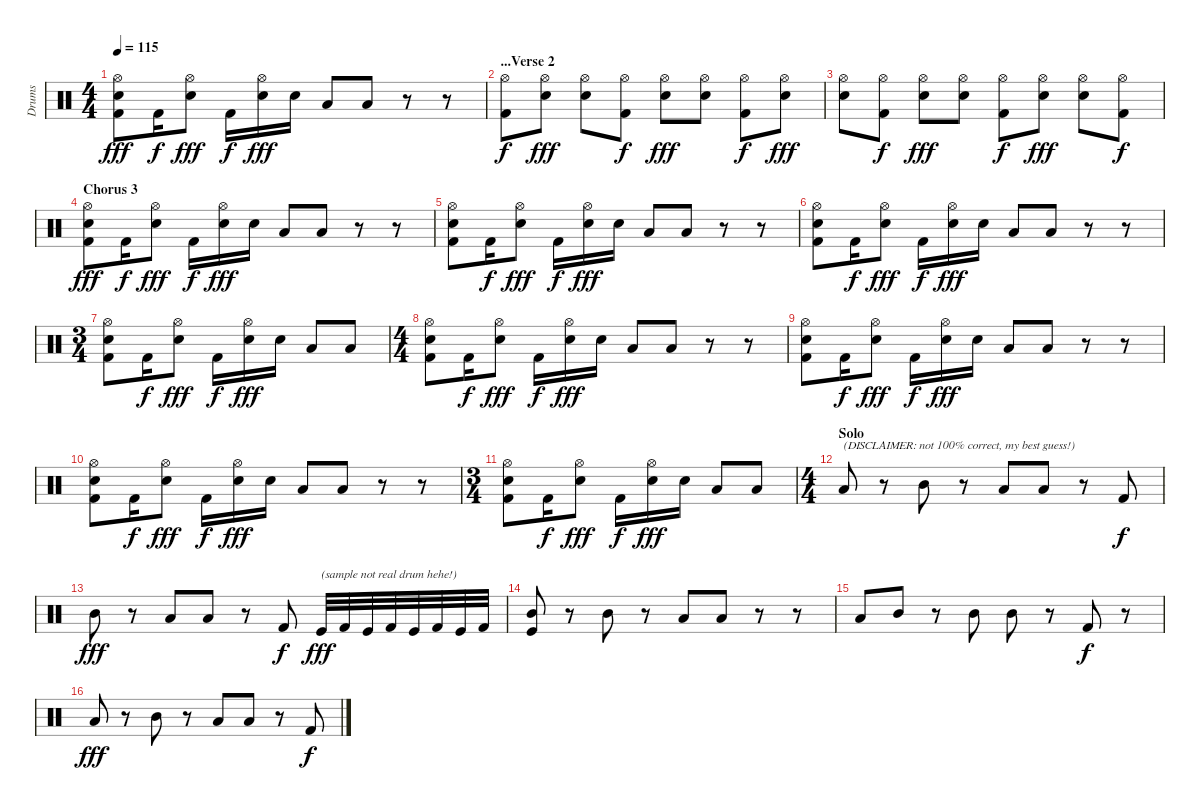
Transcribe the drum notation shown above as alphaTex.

\track ("Drums" "Drums") {instrument percussion}
\staff {score}
\articulation defaults
\ts (4 4)
\tempo 115
\clef neutral
\ks c
("Hi-Hat (open)" "Snare (hit) 2" "Kick (hit) 2").8{dy fff} "Kick (hit) 2".16{dy f} ("Hi-Hat (open)" "Snare (hit) 2").8{dy fff} "Kick (hit) 2".16{dy f} ("Hi-Hat (open)" "Snare (hit) 2").16{dy fff} "Snare (hit) 2".16 "Low Floor Tom (hit)".8 "Low Floor Tom (hit)".8 r.8 r.8 |
\section ("" "...Verse 2")
("Hi-Hat (open)" "Kick (hit) 2").8{dy f} ("Hi-Hat (open)" "Snare (hit) 2").8{dy fff} ("Hi-Hat (open)" "Snare (hit) 2").8 ("Hi-Hat (open)" "Kick (hit) 2").8{dy f} ("Hi-Hat (open)" "Snare (hit) 2").8{dy fff} ("Hi-Hat (open)" "Snare (hit) 2").8 ("Hi-Hat (open)" "Kick (hit) 2").8{dy f} ("Hi-Hat (open)" "Snare (hit) 2").8{dy fff} |
("Hi-Hat (open)" "Snare (hit) 2").8 ("Hi-Hat (open)" "Kick (hit) 2").8{dy f} ("Hi-Hat (open)" "Snare (hit) 2").8{dy fff} ("Hi-Hat (open)" "Snare (hit) 2").8 ("Hi-Hat (open)" "Kick (hit) 2").8{dy f} ("Hi-Hat (open)" "Snare (hit) 2").8{dy fff} ("Hi-Hat (open)" "Snare (hit) 2").8 ("Hi-Hat (open)" "Kick (hit) 2").8{dy f} |
\section ("" "Chorus 3")
("Hi-Hat (open)" "Snare (hit) 2" "Kick (hit) 2").8{dy fff} "Kick (hit) 2".16{dy f} ("Hi-Hat (open)" "Snare (hit) 2").8{dy fff} "Kick (hit) 2".16{dy f} ("Hi-Hat (open)" "Snare (hit) 2").16{dy fff} "Snare (hit) 2".16 "Low Floor Tom (hit)".8 "Low Floor Tom (hit)".8 r.8 r.8 |
("Hi-Hat (open)" "Snare (hit) 2" "Kick (hit) 2").8 "Kick (hit) 2".16{dy f} ("Hi-Hat (open)" "Snare (hit) 2").8{dy fff} "Kick (hit) 2".16{dy f} ("Hi-Hat (open)" "Snare (hit) 2").16{dy fff} "Snare (hit) 2".16 "Low Floor Tom (hit)".8 "Low Floor Tom (hit)".8 r.8 r.8 |
("Hi-Hat (open)" "Snare (hit) 2" "Kick (hit) 2").8 "Kick (hit) 2".16{dy f} ("Hi-Hat (open)" "Snare (hit) 2").8{dy fff} "Kick (hit) 2".16{dy f} ("Hi-Hat (open)" "Snare (hit) 2").16{dy fff} "Snare (hit) 2".16 "Low Floor Tom (hit)".8 "Low Floor Tom (hit)".8 r.8 r.8 |
\ts (3 4)
("Hi-Hat (open)" "Snare (hit) 2" "Kick (hit) 2").8 "Kick (hit) 2".16{dy f} ("Hi-Hat (open)" "Snare (hit) 2").8{dy fff} "Kick (hit) 2".16{dy f} ("Hi-Hat (open)" "Snare (hit) 2").16{dy fff} "Snare (hit) 2".16 "Low Floor Tom (hit)".8 "Low Floor Tom (hit)".8 |
\ts (4 4)
("Hi-Hat (open)" "Snare (hit) 2" "Kick (hit) 2").8 "Kick (hit) 2".16{dy f} ("Hi-Hat (open)" "Snare (hit) 2").8{dy fff} "Kick (hit) 2".16{dy f} ("Hi-Hat (open)" "Snare (hit) 2").16{dy fff} "Snare (hit) 2".16 "Low Floor Tom (hit)".8 "Low Floor Tom (hit)".8 r.8 r.8 |
("Hi-Hat (open)" "Snare (hit) 2" "Kick (hit) 2").8 "Kick (hit) 2".16{dy f} ("Hi-Hat (open)" "Snare (hit) 2").8{dy fff} "Kick (hit) 2".16{dy f} ("Hi-Hat (open)" "Snare (hit) 2").16{dy fff} "Snare (hit) 2".16 "Low Floor Tom (hit)".8 "Low Floor Tom (hit)".8 r.8 r.8 |
("Hi-Hat (open)" "Snare (hit) 2" "Kick (hit) 2").8 "Kick (hit) 2".16{dy f} ("Hi-Hat (open)" "Snare (hit) 2").8{dy fff} "Kick (hit) 2".16{dy f} ("Hi-Hat (open)" "Snare (hit) 2").16{dy fff} "Snare (hit) 2".16 "Low Floor Tom (hit)".8 "Low Floor Tom (hit)".8 r.8 r.8 |
\ts (3 4)
("Hi-Hat (open)" "Snare (hit) 2" "Kick (hit) 2").8 "Kick (hit) 2".16{dy f} ("Hi-Hat (open)" "Snare (hit) 2").8{dy fff} "Kick (hit) 2".16{dy f} ("Hi-Hat (open)" "Snare (hit) 2").16{dy fff} "Snare (hit) 2".16 "Low Floor Tom (hit)".8 "Low Floor Tom (hit)".8 |
\ts (4 4)
\section ("" "Solo")
"Low Tom (hit)".8{txt "(DISCLAIMER: not 100% correct, my best guess!)" balance 4} r.8 "Mid Tom (hit)".8{balance 12} r.8 "Low Tom (hit)".8{balance 4} "Low Tom (hit)".8 r.8 "Kick (hit) 2".8{dy f balance 8} |
"Mid Tom (hit)".8{dy fff balance 12} r.8 "Low Tom (hit)".8{balance 4} "Low Tom (hit)".8 r.8 "Kick (hit) 2".8{dy f balance 8} "Kick (hit)".32{txt "(sample not real drum hehe!)" dy fff balance 12} "Kick (hit) 2".32 "Kick (hit)".32{balance 10} "Kick (hit) 2".32 "Kick (hit)".32{balance 8} "Kick (hit) 2".32 "Kick (hit)".32{balance 6} "Kick (hit) 2".32 |
("Mid Tom (hit)" "Kick (hit)").8{balance 12} r.8 "Mid Tom (hit)".8{balance 12} r.8 "Low Tom (hit)".8{balance 4} "Low Tom (hit)".8 r.8 r.8 |
"Low Tom (hit)".8{balance 4} "Mid Tom (hit)".8{balance 12} r.8 "Mid Tom (hit)".8 "Mid Tom (hit)".8 r.8 "Kick (hit) 2".8{dy f balance 8} r.8{balance 4} |
"Low Tom (hit)".8{dy fff balance 4} r.8 "Mid Tom (hit)".8{balance 12} r.8 "Low Tom (hit)".8{balance 4} "Low Tom (hit)".8 r.8 "Kick (hit) 2".8{dy f balance 8}
